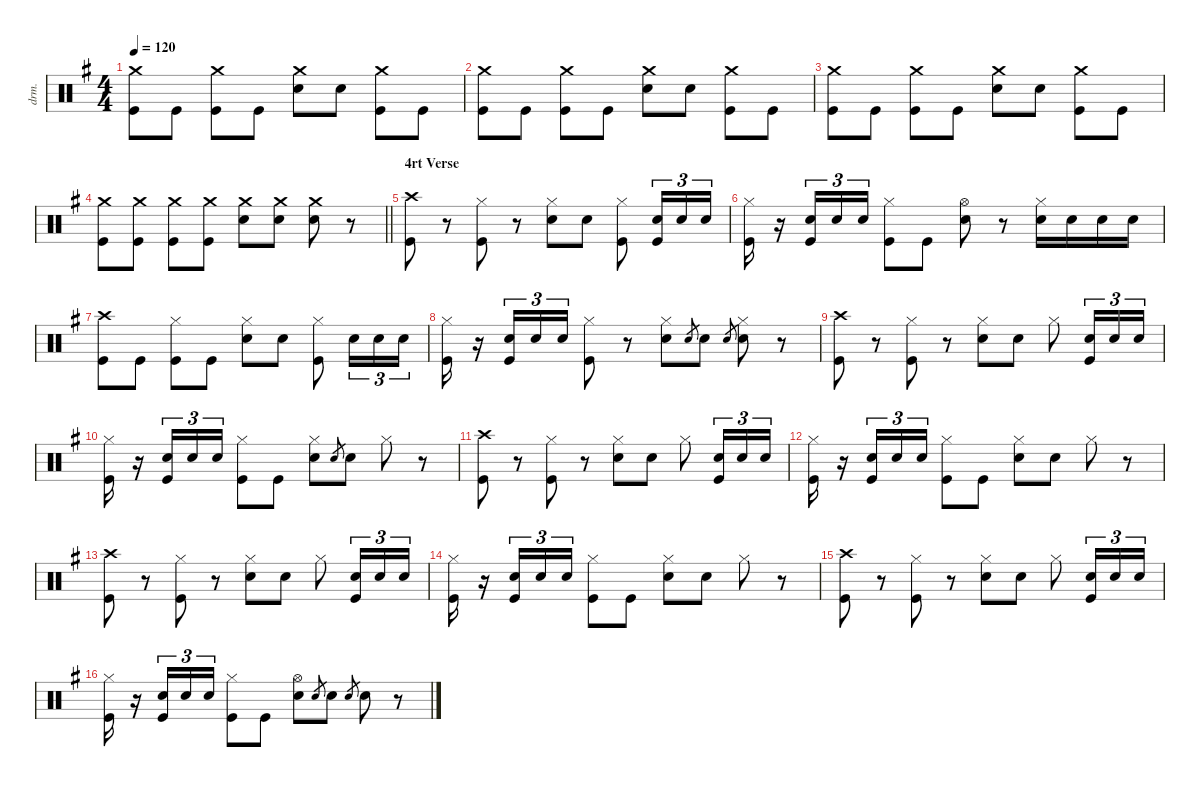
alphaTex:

\defaultSystemsLayout 4
\hideDynamics
\bracketExtendMode nobrackets
\track ("Drums (Bill Ward)" "drm.") {instrument percussion}
\staff {score}
\articulation defaults
\ts (4 4)
\tempo 120
\clef neutral
\ks g
("Crash medium (hit)"{acc forcenatural} "Kick (hit)"{acc forcenatural}).8{dy f} "Kick (hit)"{acc forcenatural}.8 ("Crash medium (hit)"{acc forcenatural} "Kick (hit)"{acc forcenatural}).8 "Kick (hit)"{acc forcenatural}.8 ("Crash medium (hit)"{acc forcenatural} "Snare (hit) 2"{acc forcenatural}).8 "Snare (hit) 2"{acc forcenatural}.8 ("Crash medium (hit)"{acc forcenatural} "Kick (hit)"{acc forcenatural}).8 "Kick (hit)"{acc forcenatural}.8 |
("Crash medium (hit)"{acc forcenatural} "Kick (hit)"{acc forcenatural}).8 "Kick (hit)"{acc forcenatural}.8 ("Crash medium (hit)"{acc forcenatural} "Kick (hit)"{acc forcenatural}).8 "Kick (hit)"{acc forcenatural}.8 ("Crash medium (hit)"{acc forcenatural} "Snare (hit) 2"{acc forcenatural}).8 "Snare (hit) 2"{acc forcenatural}.8 ("Crash medium (hit)"{acc forcenatural} "Kick (hit)"{acc forcenatural}).8 "Kick (hit)"{acc forcenatural}.8 |
("Crash medium (hit)"{acc forcenatural} "Kick (hit)"{acc forcenatural}).8 "Kick (hit)"{acc forcenatural}.8 ("Crash medium (hit)"{acc forcenatural} "Kick (hit)"{acc forcenatural}).8 "Kick (hit)"{acc forcenatural}.8 ("Crash medium (hit)"{acc forcenatural} "Snare (hit) 2"{acc forcenatural}).8 "Snare (hit) 2"{acc forcenatural}.8 ("Crash medium (hit)"{acc forcenatural} "Kick (hit)"{acc forcenatural}).8 "Kick (hit)"{acc forcenatural}.8 |
\barLineRight lightlight
("Crash medium (hit)"{acc forcenatural} "Kick (hit)"{acc forcenatural}).8 ("Crash medium (hit)"{acc forcenatural} "Kick (hit)"{acc forcenatural}).8 ("Crash medium (hit)"{acc forcenatural} "Kick (hit)"{acc forcenatural}).8 ("Crash medium (hit)"{acc forcenatural} "Kick (hit)"{acc forcenatural}).8 ("Crash medium (hit)"{acc forcenatural} "Snare (hit) 2"{acc forcenatural}).8 ("Crash medium (hit)"{acc forcenatural} "Snare (hit) 2"{acc forcenatural}).8 ("Crash medium (hit)"{acc forcenatural} "Snare (hit) 2"{acc forcenatural}).8 r.8 |
\section ("" "4rt Verse")
("Crash high (hit)"{acc forcenatural} "Kick (hit)"{acc forcenatural}).8 r.8 ("Hi-Hat (closed)"{acc forcenatural} "Kick (hit)"{acc forcenatural}).8 r.8 ("Hi-Hat (closed)"{acc forcenatural} "Snare (hit) 2"{acc forcenatural}).8 "Snare (hit) 2"{acc forcenatural}.8 ("Hi-Hat (closed)"{acc forcenatural} "Kick (hit)"{acc forcenatural}).8 ("Snare (hit) 2"{acc forcenatural} "Kick (hit)"{acc forcenatural}).16{tu (3 2) dy p} "Snare (hit) 2"{acc forcenatural}.16{tu (3 2)} "Snare (hit) 2"{acc forcenatural}.16{tu (3 2)} |
("Hi-Hat (closed)"{acc forcenatural} "Kick (hit)"{acc forcenatural}).16{dy f} r.16 ("Snare (hit) 2"{acc forcenatural} "Kick (hit)"{acc forcenatural}).16{tu (3 2) dy p} "Snare (hit) 2"{acc forcenatural}.16{tu (3 2)} "Snare (hit) 2"{acc forcenatural}.16{tu (3 2)} ("Hi-Hat (closed)"{acc forcenatural} "Kick (hit)"{acc forcenatural}).8{dy f} "Kick (hit)"{acc forcenatural}.8 ("Hi-Hat (open)"{acc forcenatural} "Snare (hit) 2"{acc forcenatural}).8{dy fff} r.8 ("Hi-Hat (closed)"{acc forcenatural} "Snare (hit) 2"{acc forcenatural}).16{dy f} "Snare (hit) 2"{acc forcenatural}.16 "Snare (hit) 2"{acc forcenatural}.16 "Snare (hit) 2"{acc forcenatural}.16 |
("Crash high (hit)"{acc forcenatural} "Kick (hit)"{acc forcenatural}).8 "Kick (hit)"{acc forcenatural}.8 ("Hi-Hat (closed)"{acc forcenatural} "Kick (hit)"{acc forcenatural}).8 "Kick (hit)"{acc forcenatural}.8 ("Hi-Hat (closed)"{acc forcenatural} "Snare (hit) 2"{acc forcenatural}).8 "Snare (hit) 2"{acc forcenatural}.8 ("Hi-Hat (closed)"{acc forcenatural} "Kick (hit)"{acc forcenatural}).8 "Snare (hit) 2"{acc forcenatural}.16{tu (3 2) dy p} "Snare (hit) 2"{acc forcenatural}.16{tu (3 2)} "Snare (hit) 2"{acc forcenatural}.16{tu (3 2)} |
("Hi-Hat (closed)"{acc forcenatural} "Kick (hit)"{acc forcenatural}).16{dy f} r.16 ("Snare (hit) 2"{acc forcenatural} "Kick (hit)"{acc forcenatural}).16{tu (3 2) dy p} "Snare (hit) 2"{acc forcenatural}.16{tu (3 2)} "Snare (hit) 2"{acc forcenatural}.16{tu (3 2)} ("Hi-Hat (closed)"{acc forcenatural} "Kick (hit)"{acc forcenatural}).8{dy f} r.8 ("Hi-Hat (closed)"{acc forcenatural} "Snare (hit) 2"{acc forcenatural}).8 "Electric Snare (hit)"{acc forcenatural}.8{gr dy mf} "Snare (hit) 2"{acc forcenatural}.8{dy f} "Electric Snare (hit)"{acc forcenatural}.8{gr dy mf} ("Hi-Hat (closed)"{acc forcenatural} "Snare (hit) 2"{acc forcenatural}).8{dy f} r.8 |
("Crash high (hit)"{acc forcenatural} "Kick (hit)"{acc forcenatural}).8 r.8 ("Hi-Hat (closed)"{acc forcenatural} "Kick (hit)"{acc forcenatural}).8 r.8 ("Hi-Hat (closed)"{acc forcenatural} "Snare (hit) 2"{acc forcenatural}).8 "Snare (hit) 2"{acc forcenatural}.8 "Hi-Hat (closed)"{acc forcenatural}.8 ("Snare (hit) 2"{acc forcenatural} "Kick (hit)"{acc forcenatural}).16{tu (3 2) dy p} "Snare (hit) 2"{acc forcenatural}.16{tu (3 2)} "Snare (hit) 2"{acc forcenatural}.16{tu (3 2)} |
("Hi-Hat (closed)"{acc forcenatural} "Kick (hit)"{acc forcenatural}).16{dy f} r.16 ("Snare (hit) 2"{acc forcenatural} "Kick (hit)"{acc forcenatural}).16{tu (3 2) dy p} "Snare (hit) 2"{acc forcenatural}.16{tu (3 2)} "Snare (hit) 2"{acc forcenatural}.16{tu (3 2)} ("Hi-Hat (closed)"{acc forcenatural} "Kick (hit)"{acc forcenatural}).8{dy f} "Kick (hit)"{acc forcenatural}.8 ("Hi-Hat (closed)"{acc forcenatural} "Snare (hit) 2"{acc forcenatural}).8 "Electric Snare (hit)"{acc forcenatural}.8{gr dy mf} "Snare (hit) 2"{acc forcenatural}.8{dy f} "Hi-Hat (closed)"{acc forcenatural}.8 r.8 |
("Crash high (hit)"{acc forcenatural} "Kick (hit)"{acc forcenatural}).8 r.8 ("Hi-Hat (closed)"{acc forcenatural} "Kick (hit)"{acc forcenatural}).8 r.8 ("Hi-Hat (closed)"{acc forcenatural} "Snare (hit) 2"{acc forcenatural}).8 "Snare (hit) 2"{acc forcenatural}.8 "Hi-Hat (closed)"{acc forcenatural}.8 ("Snare (hit) 2"{acc forcenatural} "Kick (hit)"{acc forcenatural}).16{tu (3 2) dy p} "Snare (hit) 2"{acc forcenatural}.16{tu (3 2)} "Snare (hit) 2"{acc forcenatural}.16{tu (3 2)} |
("Hi-Hat (closed)"{acc forcenatural} "Kick (hit)"{acc forcenatural}).16{dy f} r.16 ("Snare (hit) 2"{acc forcenatural} "Kick (hit)"{acc forcenatural}).16{tu (3 2) dy p} "Snare (hit) 2"{acc forcenatural}.16{tu (3 2)} "Snare (hit) 2"{acc forcenatural}.16{tu (3 2)} ("Hi-Hat (closed)"{acc forcenatural} "Kick (hit)"{acc forcenatural}).8{dy f} "Kick (hit)"{acc forcenatural}.8 ("Hi-Hat (closed)"{acc forcenatural} "Snare (hit) 2"{acc forcenatural}).8 "Snare (hit) 2"{acc forcenatural}.8 "Hi-Hat (closed)"{acc forcenatural}.8 r.8 |
("Crash high (hit)"{acc forcenatural} "Kick (hit)"{acc forcenatural}).8 r.8 ("Hi-Hat (closed)"{acc forcenatural} "Kick (hit)"{acc forcenatural}).8 r.8 ("Hi-Hat (closed)"{acc forcenatural} "Snare (hit) 2"{acc forcenatural}).8 "Snare (hit) 2"{acc forcenatural}.8 "Hi-Hat (closed)"{acc forcenatural}.8 ("Snare (hit) 2"{acc forcenatural} "Kick (hit)"{acc forcenatural}).16{tu (3 2) dy p} "Snare (hit) 2"{acc forcenatural}.16{tu (3 2)} "Snare (hit) 2"{acc forcenatural}.16{tu (3 2)} |
("Hi-Hat (closed)"{acc forcenatural} "Kick (hit)"{acc forcenatural}).16{dy f} r.16 ("Snare (hit) 2"{acc forcenatural} "Kick (hit)"{acc forcenatural}).16{tu (3 2) dy p} "Snare (hit) 2"{acc forcenatural}.16{tu (3 2)} "Snare (hit) 2"{acc forcenatural}.16{tu (3 2)} ("Hi-Hat (closed)"{acc forcenatural} "Kick (hit)"{acc forcenatural}).8{dy f} "Kick (hit)"{acc forcenatural}.8 ("Hi-Hat (closed)"{acc forcenatural} "Snare (hit) 2"{acc forcenatural}).8 "Snare (hit) 2"{acc forcenatural}.8 "Hi-Hat (closed)"{acc forcenatural}.8 r.8 |
("Crash high (hit)"{acc forcenatural} "Kick (hit)"{acc forcenatural}).8 r.8 ("Hi-Hat (closed)"{acc forcenatural} "Kick (hit)"{acc forcenatural}).8 r.8 ("Hi-Hat (closed)"{acc forcenatural} "Snare (hit) 2"{acc forcenatural}).8 "Snare (hit) 2"{acc forcenatural}.8 "Hi-Hat (closed)"{acc forcenatural}.8 ("Snare (hit) 2"{acc forcenatural} "Kick (hit)"{acc forcenatural}).16{tu (3 2) dy p} "Snare (hit) 2"{acc forcenatural}.16{tu (3 2)} "Snare (hit) 2"{acc forcenatural}.16{tu (3 2)} |
("Hi-Hat (closed)"{acc forcenatural} "Kick (hit)"{acc forcenatural}).16{dy f} r.16 ("Snare (hit) 2"{acc forcenatural} "Kick (hit)"{acc forcenatural}).16{tu (3 2) dy p} "Snare (hit) 2"{acc forcenatural}.16{tu (3 2)} "Snare (hit) 2"{acc forcenatural}.16{tu (3 2)} ("Hi-Hat (closed)"{acc forcenatural} "Kick (hit)"{acc forcenatural}).8{dy f} "Kick (hit)"{acc forcenatural}.8 ("Hi-Hat (open)"{acc forcenatural} "Snare (hit) 2"{acc forcenatural}).8 "Electric Snare (hit)"{acc forcenatural}.8{gr dy mf} "Snare (hit) 2"{acc forcenatural}.8{dy f} "Electric Snare (hit)"{acc forcenatural}.8{gr dy mf} "Snare (hit) 2"{acc forcenatural}.8{dy f} r.8
